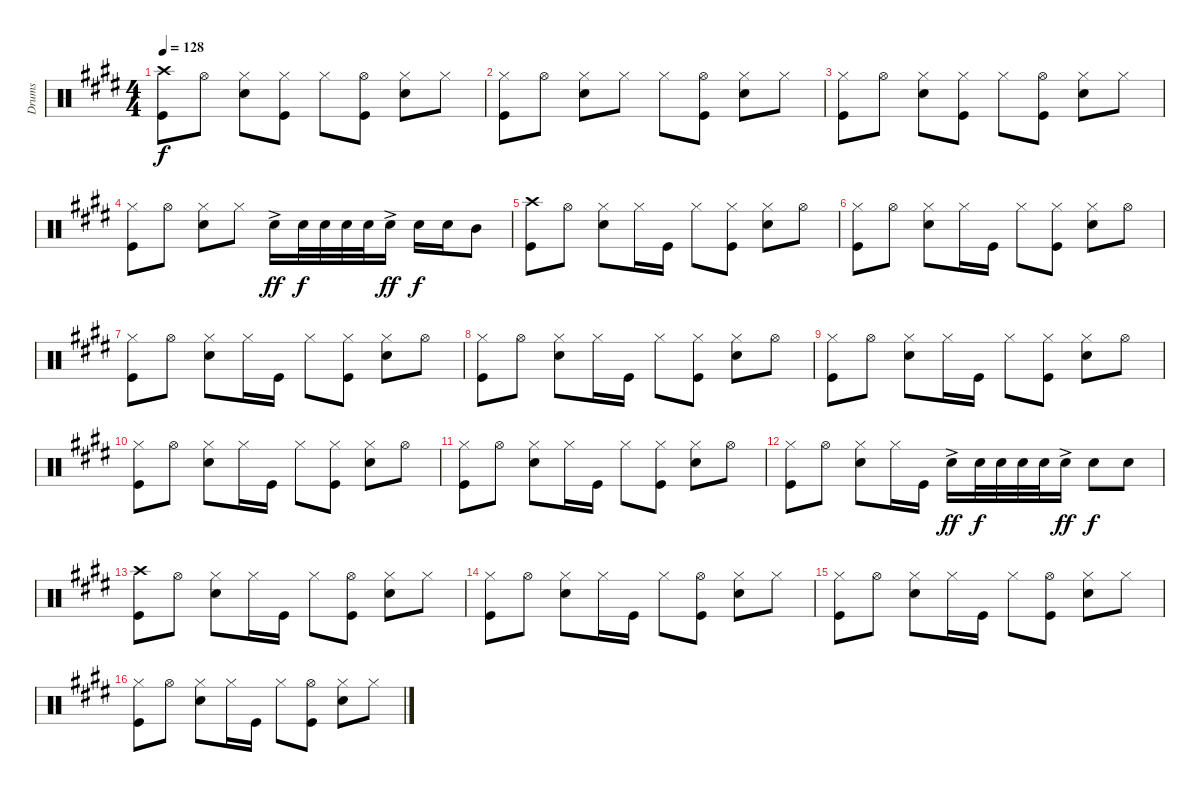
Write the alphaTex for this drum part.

\track ("Drums" "Drums") {instrument percussion}
\staff {score}
\articulation defaults
\ts (4 4)
\tempo 128
\clef neutral
\ks c#minor
("Crash high (hit)" "Kick (hit)").8{dy f} "Hi-Hat (open)".8 ("Snare (hit) 2" "Hi-Hat (closed)").8 ("Kick (hit)" "Hi-Hat (closed)").8 "Hi-Hat (closed)".8 ("Hi-Hat (open)" "Kick (hit)").8 ("Snare (hit) 2" "Hi-Hat (closed)").8 "Hi-Hat (closed)".8 |
("Hi-Hat (closed)" "Kick (hit)").8 "Hi-Hat (open)".8 ("Snare (hit) 2" "Hi-Hat (closed)").8 "Hi-Hat (closed)".8 "Hi-Hat (closed)".8 ("Hi-Hat (open)" "Kick (hit)").8 ("Hi-Hat (closed)" "Snare (hit) 2").8 "Hi-Hat (closed)".8 |
("Hi-Hat (closed)" "Kick (hit)").8 "Hi-Hat (open)".8 ("Hi-Hat (closed)" "Snare (hit) 2").8 ("Hi-Hat (closed)" "Kick (hit)").8 "Hi-Hat (closed)".8 ("Hi-Hat (open)" "Kick (hit)").8 ("Hi-Hat (closed)" "Snare (hit) 2").8 "Hi-Hat (closed)".8 |
("Hi-Hat (closed)" "Kick (hit)").8 "Hi-Hat (open)".8 ("Hi-Hat (closed)" "Snare (hit) 2").8 "Hi-Hat (closed)".8 "Snare (hit) 2"{ac}.16{dy ff} "Snare (hit) 2".32{dy f} "Snare (hit) 2".32 "Snare (hit) 2".32 "Snare (hit) 2".32 "Snare (hit) 2"{ac}.16{dy ff} "Snare (hit) 2".16{dy f} "Snare (hit) 2".16 "Mid Tom (hit)".8 |
("Crash high (hit)" "Kick (hit)").8 "Hi-Hat (open)".8 ("Hi-Hat (closed)" "Snare (hit) 2").8 "Hi-Hat (closed)".16 "Kick (hit)".16 "Hi-Hat (closed)".8 ("Hi-Hat (closed)" "Kick (hit)").8 ("Hi-Hat (closed)" "Snare (hit) 2").8 "Hi-Hat (open)".8 |
("Hi-Hat (closed)" "Kick (hit)").8 "Hi-Hat (open)".8 ("Hi-Hat (closed)" "Snare (hit) 2").8 "Hi-Hat (closed)".16 "Kick (hit)".16 "Hi-Hat (closed)".8 ("Hi-Hat (closed)" "Kick (hit)").8 ("Hi-Hat (closed)" "Snare (hit) 2").8 "Hi-Hat (open)".8 |
("Hi-Hat (closed)" "Kick (hit)").8 "Hi-Hat (open)".8 ("Hi-Hat (closed)" "Snare (hit) 2").8 "Hi-Hat (closed)".16 "Kick (hit)".16 "Hi-Hat (closed)".8 ("Hi-Hat (closed)" "Kick (hit)").8 ("Hi-Hat (closed)" "Snare (hit) 2").8 "Hi-Hat (open)".8 |
("Hi-Hat (closed)" "Kick (hit)").8 "Hi-Hat (open)".8 ("Hi-Hat (closed)" "Snare (hit) 2").8 "Hi-Hat (closed)".16 "Kick (hit)".16 "Hi-Hat (closed)".8 ("Hi-Hat (closed)" "Kick (hit)").8 ("Hi-Hat (closed)" "Snare (hit) 2").8 "Hi-Hat (open)".8 |
("Hi-Hat (closed)" "Kick (hit)").8 "Hi-Hat (open)".8 ("Hi-Hat (closed)" "Snare (hit) 2").8 "Hi-Hat (closed)".16 "Kick (hit)".16 "Hi-Hat (closed)".8 ("Hi-Hat (closed)" "Kick (hit)").8 ("Hi-Hat (closed)" "Snare (hit) 2").8 "Hi-Hat (open)".8 |
("Hi-Hat (closed)" "Kick (hit)").8 "Hi-Hat (open)".8 ("Hi-Hat (closed)" "Snare (hit) 2").8 "Hi-Hat (closed)".16 "Kick (hit)".16 "Hi-Hat (closed)".8 ("Hi-Hat (closed)" "Kick (hit)").8 ("Hi-Hat (closed)" "Snare (hit) 2").8 "Hi-Hat (open)".8 |
("Hi-Hat (closed)" "Kick (hit)").8 "Hi-Hat (open)".8 ("Hi-Hat (closed)" "Snare (hit) 2").8 "Hi-Hat (closed)".16 "Kick (hit)".16 "Hi-Hat (closed)".8 ("Hi-Hat (closed)" "Kick (hit)").8 ("Hi-Hat (closed)" "Snare (hit) 2").8 "Hi-Hat (open)".8 |
("Hi-Hat (closed)" "Kick (hit)").8 "Hi-Hat (open)".8 ("Hi-Hat (closed)" "Snare (hit) 2").8 "Hi-Hat (closed)".16 "Kick (hit)".16 "Snare (hit) 2"{ac}.16{dy ff} "Snare (hit) 2".32{dy f} "Snare (hit) 2".32 "Snare (hit) 2".32 "Snare (hit) 2".32 "Snare (hit) 2"{ac}.16{dy ff} "Snare (hit) 2".8{dy f} "Snare (hit) 2".8 |
("Crash high (hit)" "Kick (hit)").8 "Hi-Hat (open)".8 ("Hi-Hat (closed)" "Snare (hit) 2").8 "Hi-Hat (closed)".16 "Kick (hit)".16 "Hi-Hat (closed)".8 ("Hi-Hat (open)" "Kick (hit)").8 ("Hi-Hat (closed)" "Snare (hit) 2").8 "Hi-Hat (closed)".8 |
("Hi-Hat (closed)" "Kick (hit)").8 "Hi-Hat (open)".8 ("Hi-Hat (closed)" "Snare (hit) 2").8 "Hi-Hat (closed)".16 "Kick (hit)".16 "Hi-Hat (closed)".8 ("Hi-Hat (open)" "Kick (hit)").8 ("Hi-Hat (closed)" "Snare (hit) 2").8 "Hi-Hat (closed)".8 |
("Hi-Hat (closed)" "Kick (hit)").8 "Hi-Hat (open)".8 ("Hi-Hat (closed)" "Snare (hit) 2").8 "Hi-Hat (closed)".16 "Kick (hit)".16 "Hi-Hat (closed)".8 ("Hi-Hat (open)" "Kick (hit)").8 ("Hi-Hat (closed)" "Snare (hit) 2").8 "Hi-Hat (closed)".8 |
("Hi-Hat (closed)" "Kick (hit)").8 "Hi-Hat (open)".8 ("Hi-Hat (closed)" "Snare (hit) 2").8 "Hi-Hat (closed)".16 "Kick (hit)".16 "Hi-Hat (closed)".8 ("Hi-Hat (open)" "Kick (hit)").8 ("Hi-Hat (closed)" "Snare (hit) 2").8 "Hi-Hat (closed)".8
